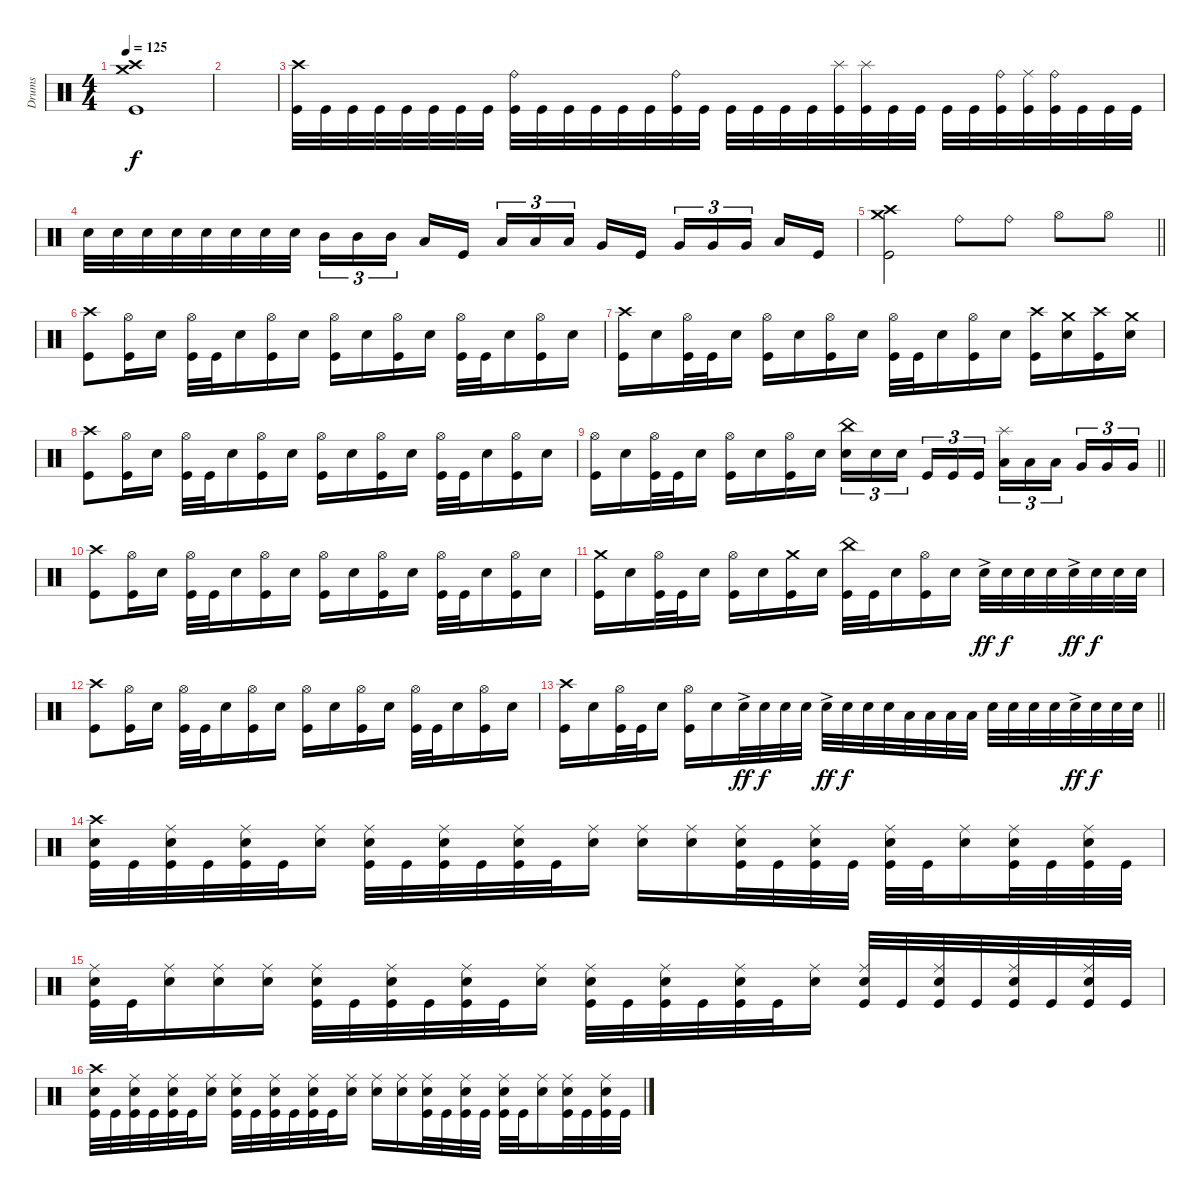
\track ("Drums" "Drums") {instrument percussion}
\staff
\articulation defaults
\ts (4 4)
\section ("" "")
\tempo 125
\clef neutral
\ks c
("Crash high (hit)" "Crash medium (hit)" "Kick (hit)").1{dy f} |
|
("Crash high (hit)" "Kick (hit)").32 "Kick (hit)".32 "Kick (hit)".32 "Kick (hit)".32 "Kick (hit)".32 "Kick (hit)".32 "Kick (hit)".32 "Kick (hit)".32 ("Ride (bell)" "Kick (hit)").32 "Kick (hit)".32 "Kick (hit)".32 "Kick (hit)".32 "Kick (hit)".32 "Kick (hit)".32 ("Ride (bell)" "Kick (hit)").32 "Kick (hit)".32 "Kick (hit)".32 "Kick (hit)".32 "Kick (hit)".32 "Kick (hit)".32 ("Splash (hit)" "Kick (hit)").32 ("Splash (hit)" "Kick (hit)").32 "Kick (hit)".32 "Kick (hit)".32 "Kick (hit)".32 "Kick (hit)".32 ("Ride (bell)" "Kick (hit)").32 ("Ride (middle)" "Kick (hit)").32 ("Ride (bell)" "Kick (hit)").32 "Kick (hit)".32 "Kick (hit)".32 "Kick (hit)".32 |
"Electric Snare (hit)".32 "Electric Snare (hit)".32 "Electric Snare (hit)".32 "Electric Snare (hit)".32 "Electric Snare (hit)".32 "Electric Snare (hit)".32 "Electric Snare (hit)".32 "Electric Snare (hit)".32 "Mid Tom (hit)".16{tu (3 2)} "Mid Tom (hit)".16{tu (3 2)} "Mid Tom (hit)".16{tu (3 2) beam splitsecondary} "Low Tom (hit)".16 "Kick (hit)".16 "Low Tom (hit)".16{tu (3 2)} "Low Tom (hit)".16{tu (3 2)} "Low Tom (hit)".16{tu (3 2) beam splitsecondary} "Very Low Tom (hit)".16 "Kick (hit)".16 "Very Low Tom (hit)".16{tu (3 2)} "Very Low Tom (hit)".16{tu (3 2)} "Very Low Tom (hit)".16{tu (3 2) beam splitsecondary} "Low Floor Tom (hit)".16 "Kick (hit)".16 |
\barLineRight lightlight
("Crash high (hit)" "Crash medium (hit)" "Kick (hit)").2 "Ride (bell)".8 "Ride (bell)".8 "Hi-Hat (open)".8 "Hi-Hat (open)".8 |
\section ("" "")
("Crash high (hit)" "Kick (hit)").8 ("Hi-Hat (open)" "Kick (hit)").16 "Electric Snare (hit)".16 ("Hi-Hat (open)" "Kick (hit)").32 "Kick (hit)".32 "Electric Snare (hit)".16 ("Hi-Hat (open)" "Kick (hit)").16 "Electric Snare (hit)".16 ("Hi-Hat (open)" "Kick (hit)").16 "Electric Snare (hit)".16 ("Hi-Hat (open)" "Kick (hit)").16 "Electric Snare (hit)".16 ("Hi-Hat (open)" "Kick (hit)").32 "Kick (hit)".32 "Electric Snare (hit)".16 ("Hi-Hat (open)" "Kick (hit)").16 "Electric Snare (hit)".16 |
("Crash high (hit)" "Kick (hit)").16 "Electric Snare (hit)".16 ("Hi-Hat (open)" "Kick (hit)").32 "Kick (hit)".32 "Electric Snare (hit)".16 ("Hi-Hat (open)" "Kick (hit)").16 "Electric Snare (hit)".16 ("Hi-Hat (open)" "Kick (hit)").16 "Electric Snare (hit)".16 ("Hi-Hat (open)" "Kick (hit)").32 "Kick (hit)".32 "Electric Snare (hit)".16 ("Hi-Hat (open)" "Kick (hit)").16 "Electric Snare (hit)".16 ("Crash high (hit)" "Kick (hit)").16 ("Crash medium (hit)" "Electric Snare (hit)").16 ("Crash high (hit)" "Kick (hit)").16 ("Crash medium (hit)" "Electric Snare (hit)").16 |
("Crash high (hit)" "Kick (hit)").8 ("Hi-Hat (open)" "Kick (hit)").16 "Electric Snare (hit)".16 ("Hi-Hat (open)" "Kick (hit)").32 "Kick (hit)".32 "Electric Snare (hit)".16 ("Hi-Hat (open)" "Kick (hit)").16 "Electric Snare (hit)".16 ("Hi-Hat (open)" "Kick (hit)").16 "Electric Snare (hit)".16 ("Hi-Hat (open)" "Kick (hit)").16 "Electric Snare (hit)".16 ("Hi-Hat (open)" "Kick (hit)").32 "Kick (hit)".32 "Electric Snare (hit)".16 ("Hi-Hat (open)" "Kick (hit)").16 "Electric Snare (hit)".16 |
\barLineRight lightlight
("Hi-Hat (open)" "Kick (hit)").16 "Electric Snare (hit)".16 ("Hi-Hat (open)" "Kick (hit)").32 "Kick (hit)".32 "Electric Snare (hit)".16 ("Hi-Hat (open)" "Kick (hit)").16 "Electric Snare (hit)".16 ("Hi-Hat (open)" "Kick (hit)").16 "Electric Snare (hit)".16 ("China (hit)" "Electric Snare (hit)").16{tu (3 2)} "Electric Snare (hit)".16{tu (3 2)} "Electric Snare (hit)".16{tu (3 2) beam splitsecondary} "Kick (hit)".16{tu (3 2)} "Kick (hit)".16{tu (3 2)} "Kick (hit)".16{tu (3 2)} ("Splash (hit)" "Low Tom (hit)").16{tu (3 2)} "Low Tom (hit)".16{tu (3 2)} "Low Tom (hit)".16{tu (3 2) beam splitsecondary} "Very Low Tom (hit)".16{tu (3 2)} "Very Low Tom (hit)".16{tu (3 2)} "Very Low Tom (hit)".16{tu (3 2)} |
("Crash high (hit)" "Kick (hit)").8 ("Hi-Hat (open)" "Kick (hit)").16 "Electric Snare (hit)".16 ("Hi-Hat (open)" "Kick (hit)").32 "Kick (hit)".32 "Electric Snare (hit)".16 ("Hi-Hat (open)" "Kick (hit)").16 "Electric Snare (hit)".16 ("Hi-Hat (open)" "Kick (hit)").16 "Electric Snare (hit)".16 ("Hi-Hat (open)" "Kick (hit)").16 "Electric Snare (hit)".16 ("Hi-Hat (open)" "Kick (hit)").32 "Kick (hit)".32 "Electric Snare (hit)".16 ("Hi-Hat (open)" "Kick (hit)").16 "Electric Snare (hit)".16 |
("Crash medium (hit)" "Kick (hit)").16 "Electric Snare (hit)".16 ("Hi-Hat (open)" "Kick (hit)").32 "Kick (hit)".32 "Electric Snare (hit)".16 ("Hi-Hat (open)" "Kick (hit)").16 "Electric Snare (hit)".16 ("Crash medium (hit)" "Kick (hit)").16 "Electric Snare (hit)".16 ("China (hit)" "Kick (hit)").32 "Kick (hit)".32 "Electric Snare (hit)".16 ("Hi-Hat (open)" "Kick (hit)").16 "Electric Snare (hit)".16 "Electric Snare (hit)"{ac}.32{dy ff} "Electric Snare (hit)".32{dy f} "Electric Snare (hit)".32 "Electric Snare (hit)".32 "Electric Snare (hit)"{ac}.32{dy ff} "Electric Snare (hit)".32{dy f} "Electric Snare (hit)".32 "Electric Snare (hit)".32 |
("Crash high (hit)" "Kick (hit)").8 ("Hi-Hat (open)" "Kick (hit)").16 "Electric Snare (hit)".16 ("Hi-Hat (open)" "Kick (hit)").32 "Kick (hit)".32 "Electric Snare (hit)".16 ("Hi-Hat (open)" "Kick (hit)").16 "Electric Snare (hit)".16 ("Hi-Hat (open)" "Kick (hit)").16 "Electric Snare (hit)".16 ("Hi-Hat (open)" "Kick (hit)").16 "Electric Snare (hit)".16 ("Hi-Hat (open)" "Kick (hit)").32 "Kick (hit)".32 "Electric Snare (hit)".16 ("Hi-Hat (open)" "Kick (hit)").16 "Electric Snare (hit)".16 |
\barLineRight lightlight
("Crash high (hit)" "Kick (hit)").16 "Electric Snare (hit)".16 ("Hi-Hat (open)" "Kick (hit)").32 "Kick (hit)".32 "Electric Snare (hit)".16 ("Hi-Hat (open)" "Kick (hit)").16 "Electric Snare (hit)".16 "Electric Snare (hit)"{ac}.32{dy ff} "Electric Snare (hit)".32{dy f} "Electric Snare (hit)".32 "Electric Snare (hit)".32 "Electric Snare (hit)"{ac}.32{dy ff} "Electric Snare (hit)".32{dy f} "Electric Snare (hit)".32 "Electric Snare (hit)".32 "Low Tom (hit)".32 "Low Tom (hit)".32 "Low Tom (hit)".32 "Low Tom (hit)".32 "Electric Snare (hit)".32 "Electric Snare (hit)".32 "Electric Snare (hit)".32 "Electric Snare (hit)".32 "Electric Snare (hit)"{ac}.32{dy ff} "Electric Snare (hit)".32{dy f} "Electric Snare (hit)".32 "Electric Snare (hit)".32 |
\section ("" "")
("Crash high (hit)" "Electric Snare (hit)" "Kick (hit)").32 "Kick (hit)".32 ("Ride (middle)" "Electric Snare (hit)" "Kick (hit)").32 "Kick (hit)".32 ("Ride (middle)" "Electric Snare (hit)" "Kick (hit)").32 "Kick (hit)".32 ("Ride (middle)" "Electric Snare (hit)").16 ("Ride (middle)" "Electric Snare (hit)" "Kick (hit)").32 "Kick (hit)".32 ("Ride (middle)" "Electric Snare (hit)" "Kick (hit)").32 "Kick (hit)".32 ("Ride (middle)" "Electric Snare (hit)" "Kick (hit)").32 "Kick (hit)".32 ("Ride (middle)" "Electric Snare (hit)").16 ("Ride (middle)" "Electric Snare (hit)").16 ("Ride (middle)" "Electric Snare (hit)").16 ("Ride (middle)" "Electric Snare (hit)" "Kick (hit)").32 "Kick (hit)".32 ("Ride (middle)" "Electric Snare (hit)" "Kick (hit)").32 "Kick (hit)".32 ("Ride (middle)" "Electric Snare (hit)" "Kick (hit)").32 "Kick (hit)".32 ("Ride (middle)" "Electric Snare (hit)").16 ("Ride (middle)" "Electric Snare (hit)" "Kick (hit)").32 "Kick (hit)".32 ("Ride (middle)" "Electric Snare (hit)" "Kick (hit)").32 "Kick (hit)".32 |
("Ride (middle)" "Electric Snare (hit)" "Kick (hit)").32 "Kick (hit)".32 ("Ride (middle)" "Electric Snare (hit)").16 ("Ride (middle)" "Electric Snare (hit)").16 ("Ride (middle)" "Electric Snare (hit)").16 ("Ride (middle)" "Electric Snare (hit)" "Kick (hit)").32 "Kick (hit)".32 ("Ride (middle)" "Electric Snare (hit)" "Kick (hit)").32 "Kick (hit)".32 ("Ride (middle)" "Electric Snare (hit)" "Kick (hit)").32 "Kick (hit)".32 ("Ride (middle)" "Electric Snare (hit)").16 ("Ride (middle)" "Electric Snare (hit)" "Kick (hit)").32 "Kick (hit)".32 ("Ride (middle)" "Electric Snare (hit)" "Kick (hit)").32 "Kick (hit)".32 ("Ride (middle)" "Electric Snare (hit)" "Kick (hit)").32 "Kick (hit)".32 ("Ride (middle)" "Electric Snare (hit)").16 ("Ride (middle)" "Electric Snare (hit)" "Kick (hit)").32 "Kick (hit)".32 ("Ride (middle)" "Electric Snare (hit)" "Kick (hit)").32 "Kick (hit)".32 ("Ride (middle)" "Electric Snare (hit)" "Kick (hit)").32 "Kick (hit)".32 ("Ride (middle)" "Electric Snare (hit)" "Kick (hit)").32 "Kick (hit)".32 |
("Crash high (hit)" "Electric Snare (hit)" "Kick (hit)").32 "Kick (hit)".32 ("Ride (middle)" "Electric Snare (hit)" "Kick (hit)").32 "Kick (hit)".32 ("Ride (middle)" "Electric Snare (hit)" "Kick (hit)").32 "Kick (hit)".32 ("Ride (middle)" "Electric Snare (hit)").16 ("Ride (middle)" "Electric Snare (hit)" "Kick (hit)").32 "Kick (hit)".32 ("Ride (middle)" "Electric Snare (hit)" "Kick (hit)").32 "Kick (hit)".32 ("Ride (middle)" "Electric Snare (hit)" "Kick (hit)").32 "Kick (hit)".32 ("Ride (middle)" "Electric Snare (hit)").16 ("Ride (middle)" "Electric Snare (hit)").16 ("Ride (middle)" "Electric Snare (hit)").16 ("Ride (middle)" "Electric Snare (hit)" "Kick (hit)").32 "Kick (hit)".32 ("Ride (middle)" "Electric Snare (hit)" "Kick (hit)").32 "Kick (hit)".32 ("Ride (middle)" "Electric Snare (hit)" "Kick (hit)").32 "Kick (hit)".32 ("Ride (middle)" "Electric Snare (hit)").16 ("Ride (middle)" "Electric Snare (hit)" "Kick (hit)").32 "Kick (hit)".32 ("Ride (middle)" "Electric Snare (hit)" "Kick (hit)").32 "Kick (hit)".32
